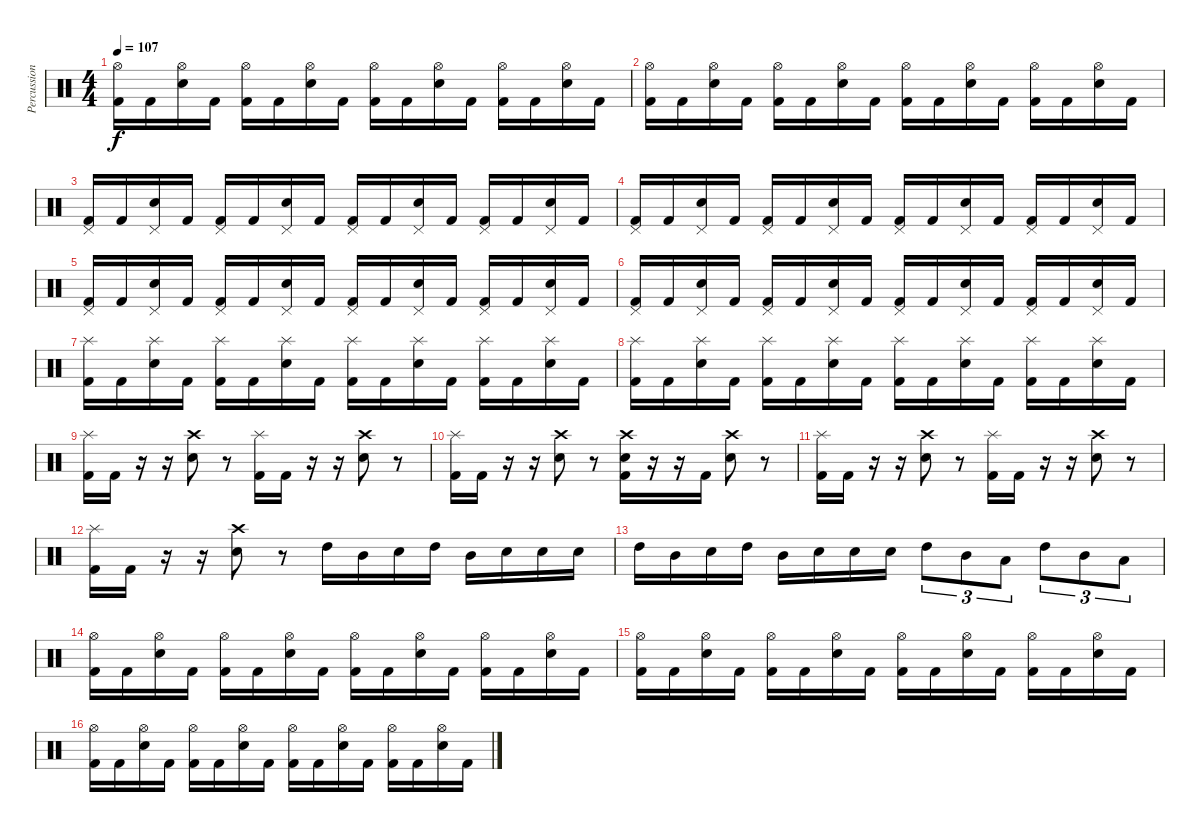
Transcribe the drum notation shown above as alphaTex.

\track ("Percussion" "Percussion") {instrument percussion}
\staff {score}
\articulation defaults
\ts (4 4)
\tempo 107
\clef neutral
\ks c
("Hi-Hat (open)" "Kick (hit) 2").16{dy f} "Kick (hit) 2".16 ("Hi-Hat (open)" "Electric Snare (hit)").16 "Kick (hit) 2".16 ("Hi-Hat (open)" "Kick (hit) 2").16 "Kick (hit) 2".16 ("Hi-Hat (open)" "Electric Snare (hit)").16 "Kick (hit) 2".16 ("Hi-Hat (open)" "Kick (hit) 2").16 "Kick (hit) 2".16 ("Hi-Hat (open)" "Electric Snare (hit)").16 "Kick (hit) 2".16 ("Hi-Hat (open)" "Kick (hit) 2").16 "Kick (hit) 2".16 ("Hi-Hat (open)" "Electric Snare (hit)").16 "Kick (hit) 2".16 |
("Hi-Hat (open)" "Kick (hit) 2").16 "Kick (hit) 2".16 ("Hi-Hat (open)" "Electric Snare (hit)").16 "Kick (hit) 2".16 ("Hi-Hat (open)" "Kick (hit) 2").16 "Kick (hit) 2".16 ("Hi-Hat (open)" "Electric Snare (hit)").16 "Kick (hit) 2".16 ("Hi-Hat (open)" "Kick (hit) 2").16 "Kick (hit) 2".16 ("Hi-Hat (open)" "Electric Snare (hit)").16 "Kick (hit) 2".16 ("Hi-Hat (open)" "Kick (hit) 2").16 "Kick (hit) 2".16 ("Hi-Hat (open)" "Electric Snare (hit)").16 "Kick (hit) 2".16 |
("Pedal Hi-Hat (hit)" "Kick (hit) 2").16 "Kick (hit) 2".16 ("Pedal Hi-Hat (hit)" "Electric Snare (hit)").16 "Kick (hit) 2".16 ("Pedal Hi-Hat (hit)" "Kick (hit) 2").16 "Kick (hit) 2".16 ("Pedal Hi-Hat (hit)" "Electric Snare (hit)").16 "Kick (hit) 2".16 ("Pedal Hi-Hat (hit)" "Kick (hit) 2").16 "Kick (hit) 2".16 ("Pedal Hi-Hat (hit)" "Electric Snare (hit)").16 "Kick (hit) 2".16 ("Pedal Hi-Hat (hit)" "Kick (hit) 2").16 "Kick (hit) 2".16 ("Pedal Hi-Hat (hit)" "Electric Snare (hit)").16 "Kick (hit) 2".16 |
("Pedal Hi-Hat (hit)" "Kick (hit) 2").16 "Kick (hit) 2".16 ("Pedal Hi-Hat (hit)" "Electric Snare (hit)").16 "Kick (hit) 2".16 ("Pedal Hi-Hat (hit)" "Kick (hit) 2").16 "Kick (hit) 2".16 ("Pedal Hi-Hat (hit)" "Electric Snare (hit)").16 "Kick (hit) 2".16 ("Pedal Hi-Hat (hit)" "Kick (hit) 2").16 "Kick (hit) 2".16 ("Pedal Hi-Hat (hit)" "Electric Snare (hit)").16 "Kick (hit) 2".16 ("Pedal Hi-Hat (hit)" "Kick (hit) 2").16 "Kick (hit) 2".16 ("Pedal Hi-Hat (hit)" "Electric Snare (hit)").16 "Kick (hit) 2".16 |
("Pedal Hi-Hat (hit)" "Kick (hit) 2").16 "Kick (hit) 2".16 ("Pedal Hi-Hat (hit)" "Electric Snare (hit)").16 "Kick (hit) 2".16 ("Pedal Hi-Hat (hit)" "Kick (hit) 2").16 "Kick (hit) 2".16 ("Pedal Hi-Hat (hit)" "Electric Snare (hit)").16 "Kick (hit) 2".16 ("Pedal Hi-Hat (hit)" "Kick (hit) 2").16 "Kick (hit) 2".16 ("Pedal Hi-Hat (hit)" "Electric Snare (hit)").16 "Kick (hit) 2".16 ("Pedal Hi-Hat (hit)" "Kick (hit) 2").16 "Kick (hit) 2".16 ("Pedal Hi-Hat (hit)" "Electric Snare (hit)").16 "Kick (hit) 2".16 |
("Pedal Hi-Hat (hit)" "Kick (hit) 2").16 "Kick (hit) 2".16 ("Pedal Hi-Hat (hit)" "Electric Snare (hit)").16 "Kick (hit) 2".16 ("Pedal Hi-Hat (hit)" "Kick (hit) 2").16 "Kick (hit) 2".16 ("Pedal Hi-Hat (hit)" "Electric Snare (hit)").16 "Kick (hit) 2".16 ("Pedal Hi-Hat (hit)" "Kick (hit) 2").16 "Kick (hit) 2".16 ("Pedal Hi-Hat (hit)" "Electric Snare (hit)").16 "Kick (hit) 2".16 ("Pedal Hi-Hat (hit)" "Kick (hit) 2").16 "Kick (hit) 2".16 ("Pedal Hi-Hat (hit)" "Electric Snare (hit)").16 "Kick (hit) 2".16 |
("Splash (hit)" "Kick (hit) 2").16 "Kick (hit) 2".16 ("Splash (hit)" "Electric Snare (hit)").16 "Kick (hit) 2".16 ("Splash (hit)" "Kick (hit) 2").16 "Kick (hit) 2".16 ("Splash (hit)" "Electric Snare (hit)").16 "Kick (hit) 2".16 ("Splash (hit)" "Kick (hit) 2").16 "Kick (hit) 2".16 ("Splash (hit)" "Electric Snare (hit)").16 "Kick (hit) 2".16 ("Splash (hit)" "Kick (hit) 2").16 "Kick (hit) 2".16 ("Splash (hit)" "Electric Snare (hit)").16 "Kick (hit) 2".16 |
("Splash (hit)" "Kick (hit) 2").16 "Kick (hit) 2".16 ("Splash (hit)" "Electric Snare (hit)").16 "Kick (hit) 2".16 ("Splash (hit)" "Kick (hit) 2").16 "Kick (hit) 2".16 ("Splash (hit)" "Electric Snare (hit)").16 "Kick (hit) 2".16 ("Splash (hit)" "Kick (hit) 2").16 "Kick (hit) 2".16 ("Splash (hit)" "Electric Snare (hit)").16 "Kick (hit) 2".16 ("Splash (hit)" "Kick (hit) 2").16 "Kick (hit) 2".16 ("Splash (hit)" "Electric Snare (hit)").16 "Kick (hit) 2".16 |
("Splash (hit)" "Kick (hit) 2").16 "Kick (hit) 2".16 r.16 r.16 ("Crash high (hit)" "Electric Snare (hit)").8 r.8 ("Splash (hit)" "Kick (hit) 2").16 "Kick (hit) 2".16 r.16 r.16 ("Crash high (hit)" "Electric Snare (hit)").8 r.8 |
("Splash (hit)" "Kick (hit) 2").16 "Kick (hit) 2".16 r.16 r.16 ("Crash high (hit)" "Electric Snare (hit)").8 r.8 ("Crash high (hit)" "Electric Snare (hit)" "Kick (hit) 2").16 r.16 r.16 "Kick (hit) 2".16 ("Crash high (hit)" "Electric Snare (hit)").8 r.8 |
("Splash (hit)" "Kick (hit) 2").16 "Kick (hit) 2".16 r.16 r.16 ("Crash high (hit)" "Electric Snare (hit)").8 r.8 ("Splash (hit)" "Kick (hit) 2").16 "Kick (hit) 2".16 r.16 r.16 ("Crash high (hit)" "Electric Snare (hit)").8 r.8 |
("Splash (hit)" "Kick (hit) 2").16 "Kick (hit) 2".16 r.16 r.16 ("Crash high (hit)" "Electric Snare (hit)").8 r.8 "High Tom (hit)".16 "Mid Tom (hit)".16 "Electric Snare (hit)".16 "High Tom (hit)".16 "Mid Tom (hit)".16 "Electric Snare (hit)".16 "Electric Snare (hit)".16 "Electric Snare (hit)".16 |
"High Tom (hit)".16 "Mid Tom (hit)".16 "Electric Snare (hit)".16 "High Tom (hit)".16 "Mid Tom (hit)".16 "Electric Snare (hit)".16 "Electric Snare (hit)".16 "Electric Snare (hit)".16 "High Tom (hit)".8{tu (3 2)} "Mid Tom (hit)".8{tu (3 2)} "Low Tom (hit)".8{tu (3 2)} "High Tom (hit)".8{tu (3 2)} "Mid Tom (hit)".8{tu (3 2)} "Low Tom (hit)".8{tu (3 2)} |
("Hi-Hat (open)" "Kick (hit) 2").16 "Kick (hit) 2".16 ("Hi-Hat (open)" "Electric Snare (hit)").16 "Kick (hit) 2".16 ("Hi-Hat (open)" "Kick (hit) 2").16 "Kick (hit) 2".16 ("Hi-Hat (open)" "Electric Snare (hit)").16 "Kick (hit) 2".16 ("Hi-Hat (open)" "Kick (hit) 2").16 "Kick (hit) 2".16 ("Hi-Hat (open)" "Electric Snare (hit)").16 "Kick (hit) 2".16 ("Hi-Hat (open)" "Kick (hit) 2").16 "Kick (hit) 2".16 ("Hi-Hat (open)" "Electric Snare (hit)").16 "Kick (hit) 2".16 |
("Hi-Hat (open)" "Kick (hit) 2").16 "Kick (hit) 2".16 ("Hi-Hat (open)" "Electric Snare (hit)").16 "Kick (hit) 2".16 ("Hi-Hat (open)" "Kick (hit) 2").16 "Kick (hit) 2".16 ("Hi-Hat (open)" "Electric Snare (hit)").16 "Kick (hit) 2".16 ("Hi-Hat (open)" "Kick (hit) 2").16 "Kick (hit) 2".16 ("Hi-Hat (open)" "Electric Snare (hit)").16 "Kick (hit) 2".16 ("Hi-Hat (open)" "Kick (hit) 2").16 "Kick (hit) 2".16 ("Hi-Hat (open)" "Electric Snare (hit)").16 "Kick (hit) 2".16 |
("Hi-Hat (open)" "Kick (hit) 2").16 "Kick (hit) 2".16 ("Hi-Hat (open)" "Electric Snare (hit)").16 "Kick (hit) 2".16 ("Hi-Hat (open)" "Kick (hit) 2").16 "Kick (hit) 2".16 ("Hi-Hat (open)" "Electric Snare (hit)").16 "Kick (hit) 2".16 ("Hi-Hat (open)" "Kick (hit) 2").16 "Kick (hit) 2".16 ("Hi-Hat (open)" "Electric Snare (hit)").16 "Kick (hit) 2".16 ("Hi-Hat (open)" "Kick (hit) 2").16 "Kick (hit) 2".16 ("Hi-Hat (open)" "Electric Snare (hit)").16 "Kick (hit) 2".16
